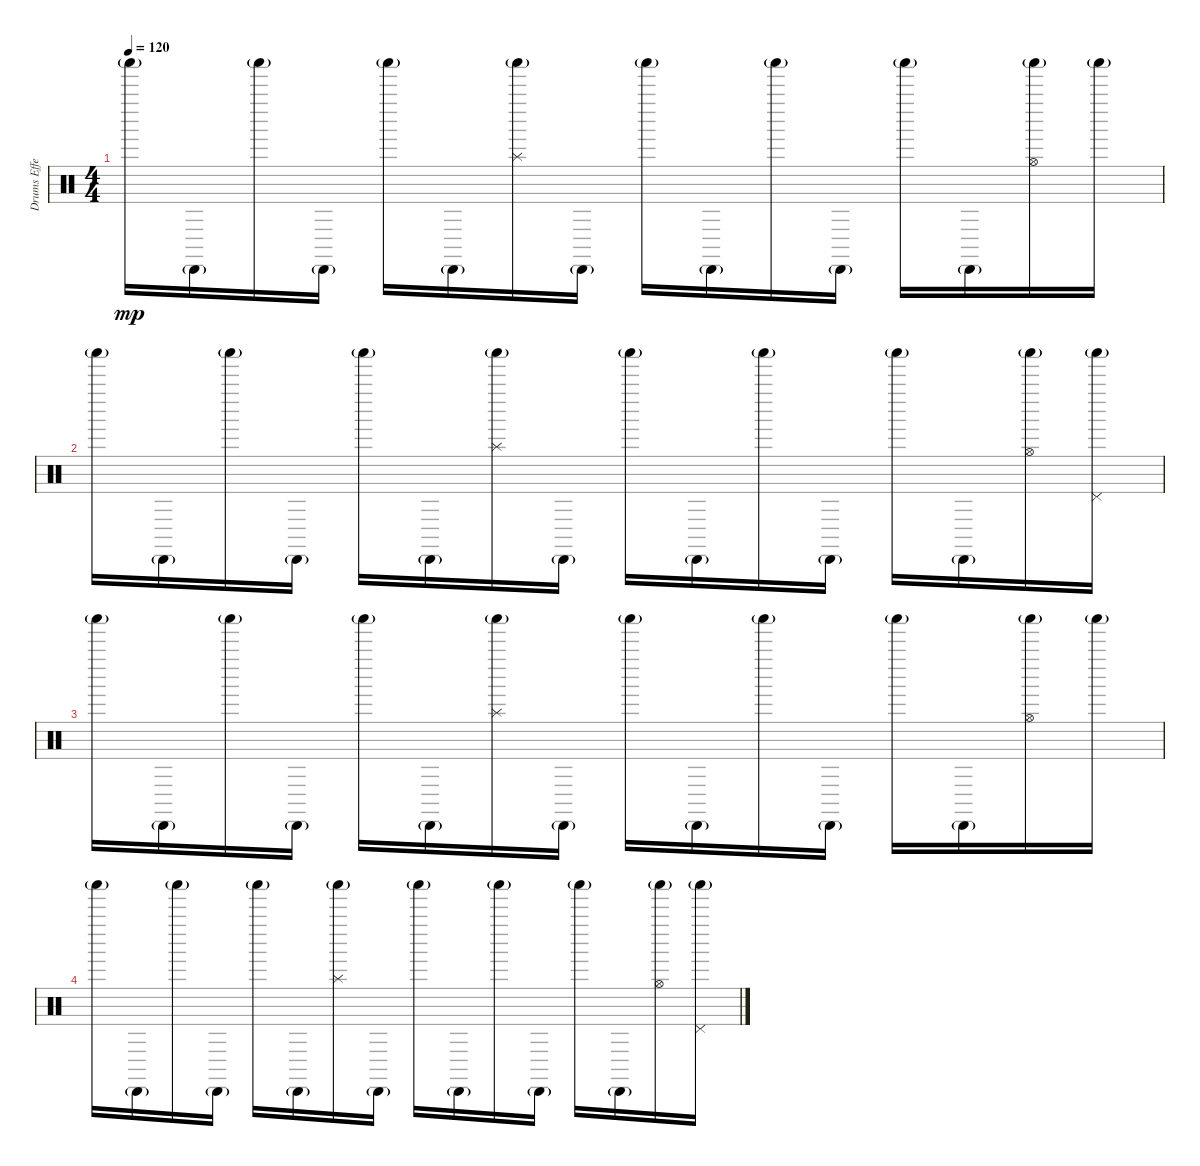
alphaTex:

\track ("Drums Effects" "Drums Effe") {instrument percussion}
\staff {score}
\articulation defaults
\ts (4 4)
\tempo 120
\clef neutral
\ks c "Shaker (hit)"{g}.16{dy mp} "Cabasa (hit)"{g}.16 "Shaker (hit)"{g}.16 "Cabasa (hit)"{g}.16 "Shaker (hit)"{g}.16 "Cabasa (hit)"{g}.16
("Shaker (hit)"{g} "Splash (hit)").16 "Cabasa (hit)"{g}.16 "Shaker (hit)"{g}.16 "Cabasa (hit)"{g}.16 "Shaker (hit)"{g}.16 "Cabasa (hit)"{g}.16 "Shaker (hit)"{g}.16 "Cabasa (hit)"{g}.16 ("Shaker (hit)"{g} "Hi-Hat (open)").16 "Shaker (hit)"{g}.16 |
"Shaker (hit)"{g}.16 "Cabasa (hit)"{g}.16 "Shaker (hit)"{g}.16 "Cabasa (hit)"{g}.16 "Shaker (hit)"{g}.16 "Cabasa (hit)"{g}.16 ("Shaker (hit)"{g} "Splash (hit)").16 "Cabasa (hit)"{g}.16 "Shaker (hit)"{g}.16 "Cabasa (hit)"{g}.16 "Shaker (hit)"{g}.16 "Cabasa (hit)"{g}.16 "Shaker (hit)"{g}.16 "Cabasa (hit)"{g}.16 ("Shaker (hit)"{g} "Hi-Hat (open)").16 ("Shaker (hit)"{g} "Pedal Hi-Hat (hit)").16 |
"Shaker (hit)"{g}.16 "Cabasa (hit)"{g}.16 "Shaker (hit)"{g}.16 "Cabasa (hit)"{g}.16 "Shaker (hit)"{g}.16 "Cabasa (hit)"{g}.16 ("Shaker (hit)"{g} "Splash (hit)").16 "Cabasa (hit)"{g}.16 "Shaker (hit)"{g}.16 "Cabasa (hit)"{g}.16 "Shaker (hit)"{g}.16 "Cabasa (hit)"{g}.16 "Shaker (hit)"{g}.16 "Cabasa (hit)"{g}.16 ("Shaker (hit)"{g} "Hi-Hat (open)").16 "Shaker (hit)"{g}.16 |
"Shaker (hit)"{g}.16 "Cabasa (hit)"{g}.16 "Shaker (hit)"{g}.16 "Cabasa (hit)"{g}.16 "Shaker (hit)"{g}.16 "Cabasa (hit)"{g}.16 ("Shaker (hit)"{g} "Splash (hit)").16 "Cabasa (hit)"{g}.16 "Shaker (hit)"{g}.16 "Cabasa (hit)"{g}.16 "Shaker (hit)"{g}.16 "Cabasa (hit)"{g}.16 "Shaker (hit)"{g}.16 "Cabasa (hit)"{g}.16 ("Shaker (hit)"{g} "Hi-Hat (open)").16 ("Shaker (hit)"{g} "Pedal Hi-Hat (hit)").16
